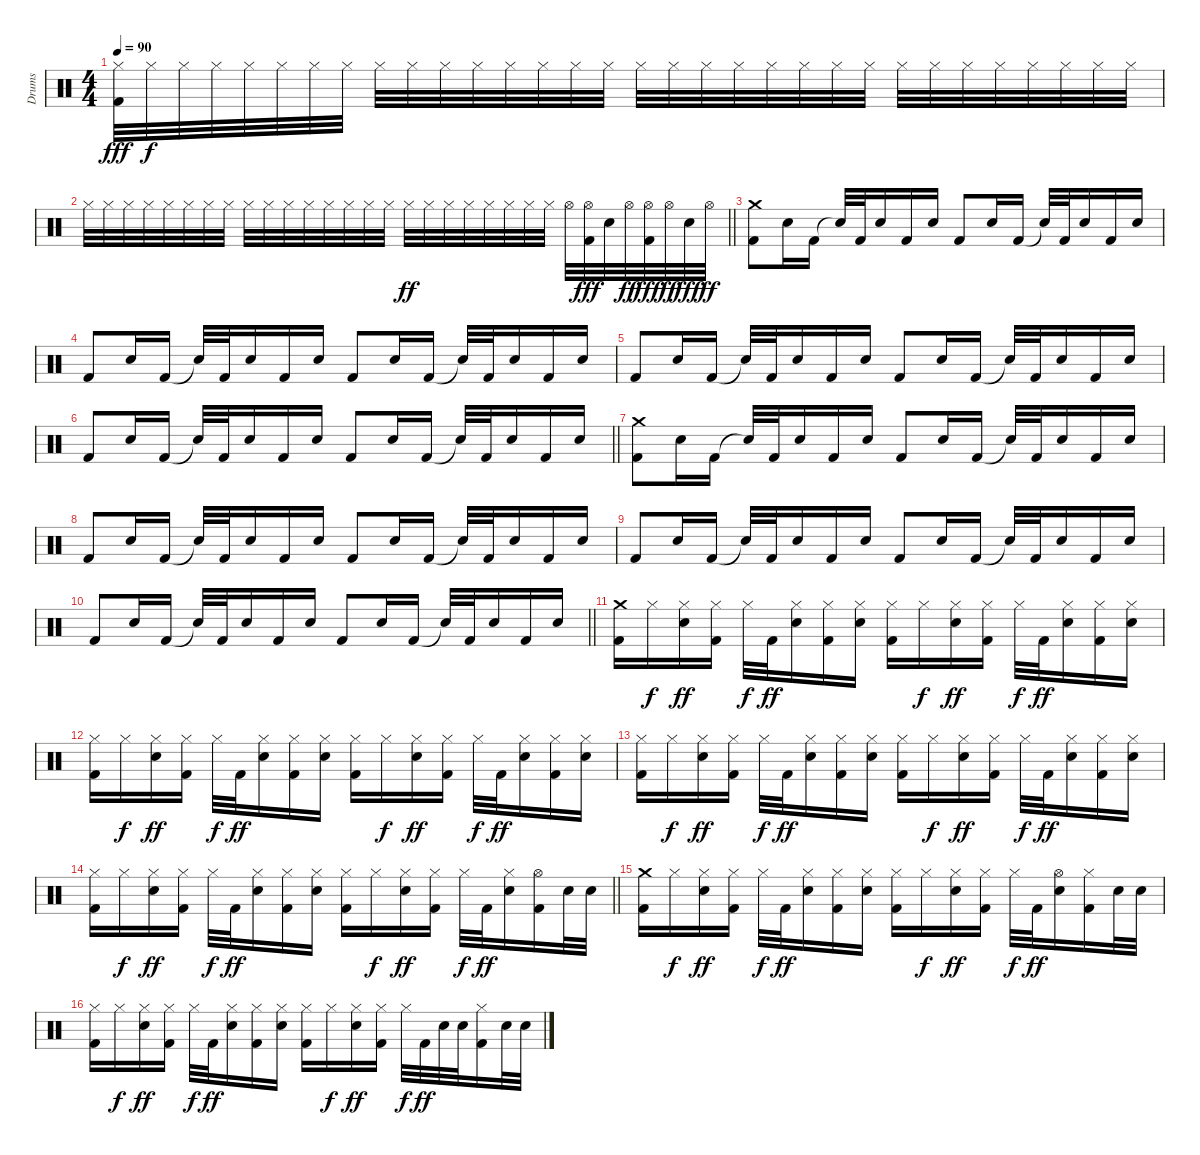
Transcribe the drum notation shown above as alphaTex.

\track ("Drums" "Drums") {instrument percussion}
\staff {score}
\articulation defaults
\ts (4 4)
\tempo 90
\clef neutral
\ks c
("Hi-Hat (closed)" "Kick (hit) 2").32{dy fff} "Hi-Hat (closed)".32{dy f} "Hi-Hat (closed)".32 "Hi-Hat (closed)".32 "Hi-Hat (closed)".32 "Hi-Hat (closed)".32 "Hi-Hat (closed)".32 "Hi-Hat (closed)".32 "Hi-Hat (closed)".32 "Hi-Hat (closed)".32 "Hi-Hat (closed)".32 "Hi-Hat (closed)".32 "Hi-Hat (closed)".32 "Hi-Hat (closed)".32 "Hi-Hat (closed)".32 "Hi-Hat (closed)".32 "Hi-Hat (closed)".32 "Hi-Hat (closed)".32 "Hi-Hat (closed)".32 "Hi-Hat (closed)".32 "Hi-Hat (closed)".32 "Hi-Hat (closed)".32 "Hi-Hat (closed)".32 "Hi-Hat (closed)".32 "Hi-Hat (closed)".32 "Hi-Hat (closed)".32 "Hi-Hat (closed)".32 "Hi-Hat (closed)".32 "Hi-Hat (closed)".32 "Hi-Hat (closed)".32 "Hi-Hat (closed)".32 "Hi-Hat (closed)".32 |
\barLineRight lightlight "Hi-Hat (closed)".32 "Hi-Hat (closed)".32 "Hi-Hat (closed)".32 "Hi-Hat (closed)".32 "Hi-Hat (closed)".32 "Hi-Hat (closed)".32 "Hi-Hat (closed)".32 "Hi-Hat (closed)".32 "Hi-Hat (closed)".32 "Hi-Hat (closed)".32 "Hi-Hat (closed)".32 "Hi-Hat (closed)".32 "Hi-Hat (closed)".32 "Hi-Hat (closed)".32 "Hi-Hat (closed)".32 "Hi-Hat (closed)".32 "Hi-Hat (closed)".32{dy ff} "Hi-Hat (closed)".32 "Hi-Hat (closed)".32 "Hi-Hat (closed)".32 "Hi-Hat (closed)".32 "Hi-Hat (closed)".32 "Hi-Hat (closed)".32 "Hi-Hat (closed)".32 "Hi-Hat (open)".32
("Hi-Hat (open)" "Kick (hit) 2").32{dy fff} "Snare (hit) 2".32 "Hi-Hat (open)".32{dy ff} ("Hi-Hat (open)" "Kick (hit) 2").32{dy fff} "Hi-Hat (open)".32{dy ff} "Snare (hit) 2".32{dy fff} "Hi-Hat (open)".32{dy ff} |
\section ("" "")
("Crash medium (hit)" "Kick (hit) 2").8 "Snare (hit) 2".16 "Kick (hit) 2".16 "Snare (hit)"{t}.32 "Kick (hit) 2".32 "Snare (hit) 2".16 "Kick (hit) 2".16 "Snare (hit) 2".16 "Kick (hit) 2".8 "Snare (hit) 2".16 "Kick (hit) 2".16 "Snare (hit)"{t}.32 "Kick (hit) 2".32 "Snare (hit) 2".16 "Kick (hit) 2".16 "Snare (hit) 2".16 |
"Kick (hit) 2".8 "Snare (hit) 2".16 "Kick (hit) 2".16 "Snare (hit)"{t}.32 "Kick (hit) 2".32 "Snare (hit) 2".16 "Kick (hit) 2".16 "Snare (hit) 2".16 "Kick (hit) 2".8 "Snare (hit) 2".16 "Kick (hit) 2".16 "Snare (hit)"{t}.32 "Kick (hit) 2".32 "Snare (hit) 2".16 "Kick (hit) 2".16 "Snare (hit) 2".16 |
"Kick (hit) 2".8 "Snare (hit) 2".16 "Kick (hit) 2".16 "Snare (hit)"{t}.32 "Kick (hit) 2".32 "Snare (hit) 2".16 "Kick (hit) 2".16 "Snare (hit) 2".16 "Kick (hit) 2".8 "Snare (hit) 2".16 "Kick (hit) 2".16 "Snare (hit)"{t}.32 "Kick (hit) 2".32 "Snare (hit) 2".16 "Kick (hit) 2".16 "Snare (hit) 2".16 |
\barLineRight lightlight "Kick (hit) 2".8 "Snare (hit) 2".16 "Kick (hit) 2".16 "Snare (hit)"{t}.32 "Kick (hit) 2".32 "Snare (hit) 2".16 "Kick (hit) 2".16 "Snare (hit) 2".16 "Kick (hit) 2".8 "Snare (hit) 2".16 "Kick (hit) 2".16 "Snare (hit)"{t}.32 "Kick (hit) 2".32 "Snare (hit) 2".16 "Kick (hit) 2".16 "Snare (hit) 2".16
|
("Crash medium (hit)" "Kick (hit) 2").8 "Snare (hit) 2".16 "Kick (hit) 2".16 "Snare (hit)"{t}.32 "Kick (hit) 2".32 "Snare (hit) 2".16 "Kick (hit) 2".16 "Snare (hit) 2".16 "Kick (hit) 2".8 "Snare (hit) 2".16 "Kick (hit) 2".16 "Snare (hit)"{t}.32 "Kick (hit) 2".32 "Snare (hit) 2".16 "Kick (hit) 2".16 "Snare (hit) 2".16 |
"Kick (hit) 2".8 "Snare (hit) 2".16 "Kick (hit) 2".16 "Snare (hit)"{t}.32 "Kick (hit) 2".32 "Snare (hit) 2".16 "Kick (hit) 2".16 "Snare (hit) 2".16 "Kick (hit) 2".8 "Snare (hit) 2".16 "Kick (hit) 2".16 "Snare (hit)"{t}.32 "Kick (hit) 2".32 "Snare (hit) 2".16 "Kick (hit) 2".16 "Snare (hit) 2".16 |
"Kick (hit) 2".8 "Snare (hit) 2".16 "Kick (hit) 2".16 "Snare (hit)"{t}.32 "Kick (hit) 2".32 "Snare (hit) 2".16 "Kick (hit) 2".16 "Snare (hit) 2".16 "Kick (hit) 2".8 "Snare (hit) 2".16 "Kick (hit) 2".16 "Snare (hit)"{t}.32 "Kick (hit) 2".32 "Snare (hit) 2".16 "Kick (hit) 2".16 "Snare (hit) 2".16 |
\barLineRight lightlight "Kick (hit) 2".8 "Snare (hit) 2".16 "Kick (hit) 2".16 "Snare (hit)"{t}.32 "Kick (hit) 2".32 "Snare (hit) 2".16 "Kick (hit) 2".16 "Snare (hit) 2".16 "Kick (hit) 2".8 "Snare (hit) 2".16 "Kick (hit) 2".16 "Snare (hit)"{t}.32 "Kick (hit) 2".32 "Snare (hit) 2".16 "Kick (hit) 2".16 "Snare (hit) 2".16
|
\section ("" "")
("Crash medium (hit)" "Kick (hit) 2").16 "Hi-Hat (closed)".16{dy f} ("Hi-Hat (closed)" "Snare (hit) 2").16{dy ff} ("Hi-Hat (closed)" "Kick (hit) 2").16 "Hi-Hat (closed)".32{dy f} "Kick (hit) 2".32{dy ff} ("Hi-Hat (closed)" "Snare (hit) 2").16 ("Hi-Hat (closed)" "Kick (hit) 2").16 ("Hi-Hat (closed)" "Snare (hit) 2").16 ("Hi-Hat (closed)" "Kick (hit) 2").16 "Hi-Hat (closed)".16{dy f} ("Hi-Hat (closed)" "Snare (hit) 2").16{dy ff} ("Hi-Hat (closed)" "Kick (hit) 2").16 "Hi-Hat (closed)".32{dy f} "Kick (hit) 2".32{dy ff} ("Hi-Hat (closed)" "Snare (hit) 2").16 ("Hi-Hat (closed)" "Kick (hit) 2").16 ("Hi-Hat (closed)" "Snare (hit) 2").16 |
("Hi-Hat (closed)" "Kick (hit) 2").16 "Hi-Hat (closed)".16{dy f} ("Hi-Hat (closed)" "Snare (hit) 2").16{dy ff} ("Hi-Hat (closed)" "Kick (hit) 2").16 "Hi-Hat (closed)".32{dy f} "Kick (hit) 2".32{dy ff} ("Hi-Hat (closed)" "Snare (hit) 2").16 ("Hi-Hat (closed)" "Kick (hit) 2").16 ("Hi-Hat (closed)" "Snare (hit) 2").16 ("Hi-Hat (closed)" "Kick (hit) 2").16 "Hi-Hat (closed)".16{dy f} ("Hi-Hat (closed)" "Snare (hit) 2").16{dy ff} ("Hi-Hat (closed)" "Kick (hit) 2").16 "Hi-Hat (closed)".32{dy f} "Kick (hit) 2".32{dy ff} ("Hi-Hat (closed)" "Snare (hit) 2").16 ("Hi-Hat (closed)" "Kick (hit) 2").16 ("Hi-Hat (closed)" "Snare (hit) 2").16 |
("Hi-Hat (closed)" "Kick (hit) 2").16 "Hi-Hat (closed)".16{dy f} ("Hi-Hat (closed)" "Snare (hit) 2").16{dy ff} ("Hi-Hat (closed)" "Kick (hit) 2").16 "Hi-Hat (closed)".32{dy f} "Kick (hit) 2".32{dy ff} ("Hi-Hat (closed)" "Snare (hit) 2").16 ("Hi-Hat (closed)" "Kick (hit) 2").16 ("Hi-Hat (closed)" "Snare (hit) 2").16 ("Hi-Hat (closed)" "Kick (hit) 2").16 "Hi-Hat (closed)".16{dy f} ("Hi-Hat (closed)" "Snare (hit) 2").16{dy ff} ("Hi-Hat (closed)" "Kick (hit) 2").16 "Hi-Hat (closed)".32{dy f} "Kick (hit) 2".32{dy ff} ("Hi-Hat (closed)" "Snare (hit) 2").16 ("Hi-Hat (closed)" "Kick (hit) 2").16 ("Hi-Hat (closed)" "Snare (hit) 2").16 |
\barLineRight lightlight
("Hi-Hat (closed)" "Kick (hit) 2").16 "Hi-Hat (closed)".16{dy f} ("Hi-Hat (closed)" "Snare (hit) 2").16{dy ff} ("Hi-Hat (closed)" "Kick (hit) 2").16 "Hi-Hat (closed)".32{dy f} "Kick (hit) 2".32{dy ff} ("Hi-Hat (closed)" "Snare (hit) 2").16 ("Hi-Hat (closed)" "Kick (hit) 2").16 ("Hi-Hat (closed)" "Snare (hit) 2").16 ("Hi-Hat (closed)" "Kick (hit) 2").16 "Hi-Hat (closed)".16{dy f} ("Hi-Hat (closed)" "Snare (hit) 2").16{dy ff} ("Hi-Hat (closed)" "Kick (hit) 2").16 "Hi-Hat (closed)".32{dy f} "Kick (hit) 2".32{dy ff} ("Hi-Hat (closed)" "Snare (hit) 2").16 ("Hi-Hat (open)" "Kick (hit) 2").16 "Snare (hit) 2".32 "Snare (hit) 2".32 |
("Crash medium (hit)" "Kick (hit) 2").16 "Hi-Hat (closed)".16{dy f} ("Hi-Hat (closed)" "Snare (hit) 2").16{dy ff} ("Hi-Hat (closed)" "Kick (hit) 2").16 "Hi-Hat (closed)".32{dy f} "Kick (hit) 2".32{dy ff} ("Hi-Hat (closed)" "Snare (hit) 2").16 ("Hi-Hat (closed)" "Kick (hit) 2").16 ("Hi-Hat (closed)" "Snare (hit) 2").16 ("Hi-Hat (closed)" "Kick (hit) 2").16 "Hi-Hat (closed)".16{dy f} ("Hi-Hat (closed)" "Snare (hit) 2").16{dy ff} ("Hi-Hat (closed)" "Kick (hit) 2").16 "Hi-Hat (closed)".32{dy f} "Kick (hit) 2".32{dy ff} ("Hi-Hat (open)" "Snare (hit) 2").16 ("Hi-Hat (closed)" "Kick (hit) 2").16 "Snare (hit) 2".32 "Snare (hit) 2".32 |
("Hi-Hat (closed)" "Kick (hit) 2").16 "Hi-Hat (closed)".16{dy f} ("Hi-Hat (closed)" "Snare (hit) 2").16{dy ff} ("Hi-Hat (closed)" "Kick (hit) 2").16 "Hi-Hat (closed)".32{dy f} "Kick (hit) 2".32{dy ff} ("Hi-Hat (closed)" "Snare (hit) 2").16 ("Hi-Hat (closed)" "Kick (hit) 2").16 ("Hi-Hat (closed)" "Snare (hit) 2").16 ("Hi-Hat (closed)" "Kick (hit) 2").16 "Hi-Hat (closed)".16{dy f} ("Hi-Hat (closed)" "Snare (hit) 2").16{dy ff} ("Hi-Hat (closed)" "Kick (hit) 2").16 "Hi-Hat (closed)".32{dy f} "Kick (hit) 2".32{dy ff} "Snare (hit) 2".32 "Snare (hit) 2".32 ("Hi-Hat (closed)" "Kick (hit) 2").16 "Snare (hit) 2".32 "Snare (hit) 2".32
